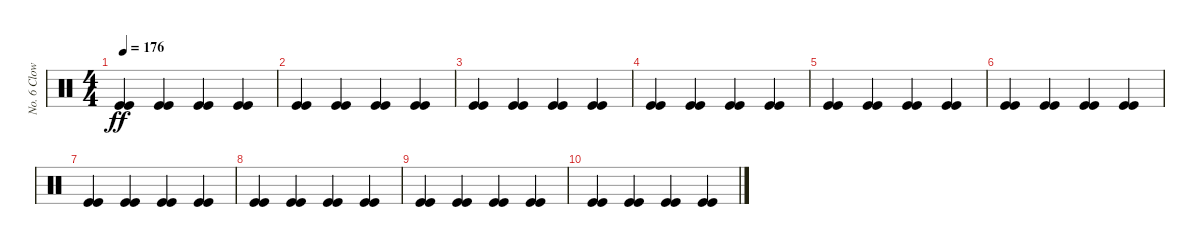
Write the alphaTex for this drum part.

\track ("No. 6 Clown" "No. 6 Clow") {instrument percussion}
\staff {score}
\articulation defaults
\ts (4 4)
\tempo 176
\clef neutral
\ks c
("Kick (hit)" "Kick (hit)").4{dy ff} ("Kick (hit)" "Kick (hit)").4 ("Kick (hit)" "Kick (hit)").4 ("Kick (hit)" "Kick (hit)").4 |
("Kick (hit)" "Kick (hit)").4 ("Kick (hit)" "Kick (hit)").4 ("Kick (hit)" "Kick (hit)").4 ("Kick (hit)" "Kick (hit)").4 |
("Kick (hit)" "Kick (hit)").4 ("Kick (hit)" "Kick (hit)").4 ("Kick (hit)" "Kick (hit)").4 ("Kick (hit)" "Kick (hit)").4 |
("Kick (hit)" "Kick (hit)").4 ("Kick (hit)" "Kick (hit)").4 ("Kick (hit)" "Kick (hit)").4 ("Kick (hit)" "Kick (hit)").4 |
("Kick (hit)" "Kick (hit)").4 ("Kick (hit)" "Kick (hit)").4 ("Kick (hit)" "Kick (hit)").4 ("Kick (hit)" "Kick (hit)").4 |
("Kick (hit)" "Kick (hit)").4 ("Kick (hit)" "Kick (hit)").4 ("Kick (hit)" "Kick (hit)").4 ("Kick (hit)" "Kick (hit)").4 |
("Kick (hit)" "Kick (hit)").4 ("Kick (hit)" "Kick (hit)").4 ("Kick (hit)" "Kick (hit)").4 ("Kick (hit)" "Kick (hit)").4 |
("Kick (hit)" "Kick (hit)").4 ("Kick (hit)" "Kick (hit)").4 ("Kick (hit)" "Kick (hit)").4 ("Kick (hit)" "Kick (hit)").4 |
("Kick (hit)" "Kick (hit)").4 ("Kick (hit)" "Kick (hit)").4 ("Kick (hit)" "Kick (hit)").4 ("Kick (hit)" "Kick (hit)").4 |
("Kick (hit)" "Kick (hit)").4 ("Kick (hit)" "Kick (hit)").4 ("Kick (hit)" "Kick (hit)").4 ("Kick (hit)" "Kick (hit)").4
